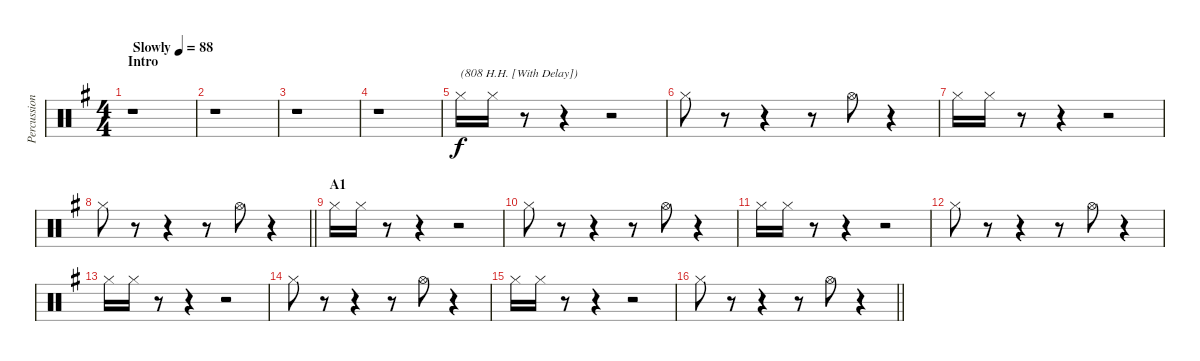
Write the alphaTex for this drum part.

\track ("Percussion" "Percussion") {instrument percussion}
\staff {score}
\articulation defaults
\ts (4 4)
\section ("" "Intro")
\tempo (88 "Slowly")
\clef neutral
\ks g
r.1{dy f} |
r.1 |
r.1 |
r.1 |
"Hi-Hat (closed)".16{txt "(808 H.H. [With Delay])"} "Hi-Hat (closed)".16 r.8 r.4 r.2 |
"Hi-Hat (closed)".8 r.8 r.4 r.8 "Hi-Hat (open)".8 r.4 |
"Hi-Hat (closed)".16 "Hi-Hat (closed)".16 r.8 r.4 r.2 |
\barLineRight lightlight "Hi-Hat (closed)".8
r.8 r.4 r.8 "Hi-Hat (open)".8 r.4 |
\section ("" "A1")
"Hi-Hat (closed)".16 "Hi-Hat (closed)".16 r.8 r.4 r.2 |
"Hi-Hat (closed)".8 r.8 r.4 r.8 "Hi-Hat (open)".8 r.4 |
"Hi-Hat (closed)".16 "Hi-Hat (closed)".16 r.8 r.4 r.2 |
"Hi-Hat (closed)".8 r.8 r.4 r.8 "Hi-Hat (open)".8 r.4 |
"Hi-Hat (closed)".16 "Hi-Hat (closed)".16 r.8 r.4 r.2 |
"Hi-Hat (closed)".8 r.8 r.4 r.8 "Hi-Hat (open)".8 r.4 |
"Hi-Hat (closed)".16 "Hi-Hat (closed)".16 r.8 r.4 r.2 |
\barLineRight lightlight "Hi-Hat (closed)".8
r.8 r.4 r.8 "Hi-Hat (open)".8 r.4
